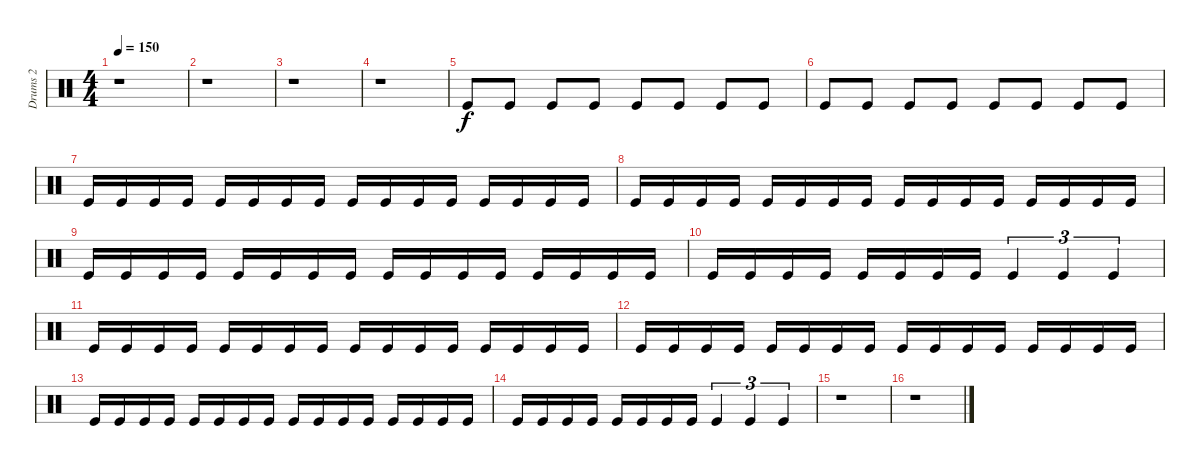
\track ("Drums 2" "Drums 2") {instrument percussion}
\staff {score}
\articulation defaults
\ts (4 4)
\tempo 150
\clef neutral
\ks c
r.1{dy f} |
r.1 |
r.1 |
r.1 |
"Kick (hit)".8 "Kick (hit)".8 "Kick (hit)".8 "Kick (hit)".8 "Kick (hit)".8 "Kick (hit)".8 "Kick (hit)".8 "Kick (hit)".8 |
"Kick (hit)".8 "Kick (hit)".8 "Kick (hit)".8 "Kick (hit)".8 "Kick (hit)".8 "Kick (hit)".8 "Kick (hit)".8 "Kick (hit)".8 |
"Kick (hit)".16 "Kick (hit)".16 "Kick (hit)".16 "Kick (hit)".16 "Kick (hit)".16 "Kick (hit)".16 "Kick (hit)".16 "Kick (hit)".16 "Kick (hit)".16 "Kick (hit)".16 "Kick (hit)".16 "Kick (hit)".16 "Kick (hit)".16 "Kick (hit)".16 "Kick (hit)".16 "Kick (hit)".16 |
"Kick (hit)".16 "Kick (hit)".16 "Kick (hit)".16 "Kick (hit)".16 "Kick (hit)".16 "Kick (hit)".16 "Kick (hit)".16 "Kick (hit)".16 "Kick (hit)".16 "Kick (hit)".16 "Kick (hit)".16 "Kick (hit)".16 "Kick (hit)".16 "Kick (hit)".16 "Kick (hit)".16 "Kick (hit)".16 |
"Kick (hit)".16 "Kick (hit)".16 "Kick (hit)".16 "Kick (hit)".16 "Kick (hit)".16 "Kick (hit)".16 "Kick (hit)".16 "Kick (hit)".16 "Kick (hit)".16 "Kick (hit)".16 "Kick (hit)".16 "Kick (hit)".16 "Kick (hit)".16 "Kick (hit)".16 "Kick (hit)".16 "Kick (hit)".16 |
"Kick (hit)".16 "Kick (hit)".16 "Kick (hit)".16 "Kick (hit)".16 "Kick (hit)".16 "Kick (hit)".16 "Kick (hit)".16 "Kick (hit)".16 "Kick (hit)".4{tu (3 2)} "Kick (hit)".4{tu (3 2)} "Kick (hit)".4{tu (3 2)} |
"Kick (hit)".16 "Kick (hit)".16 "Kick (hit)".16 "Kick (hit)".16 "Kick (hit)".16 "Kick (hit)".16 "Kick (hit)".16 "Kick (hit)".16 "Kick (hit)".16 "Kick (hit)".16 "Kick (hit)".16 "Kick (hit)".16 "Kick (hit)".16 "Kick (hit)".16 "Kick (hit)".16 "Kick (hit)".16 |
"Kick (hit)".16 "Kick (hit)".16 "Kick (hit)".16 "Kick (hit)".16 "Kick (hit)".16 "Kick (hit)".16 "Kick (hit)".16 "Kick (hit)".16 "Kick (hit)".16 "Kick (hit)".16 "Kick (hit)".16 "Kick (hit)".16 "Kick (hit)".16 "Kick (hit)".16 "Kick (hit)".16 "Kick (hit)".16 |
"Kick (hit)".16 "Kick (hit)".16 "Kick (hit)".16 "Kick (hit)".16 "Kick (hit)".16 "Kick (hit)".16 "Kick (hit)".16 "Kick (hit)".16 "Kick (hit)".16 "Kick (hit)".16 "Kick (hit)".16 "Kick (hit)".16 "Kick (hit)".16 "Kick (hit)".16 "Kick (hit)".16 "Kick (hit)".16 |
"Kick (hit)".16 "Kick (hit)".16 "Kick (hit)".16 "Kick (hit)".16 "Kick (hit)".16 "Kick (hit)".16 "Kick (hit)".16 "Kick (hit)".16 "Kick (hit)".4{tu (3 2)} "Kick (hit)".4{tu (3 2)} "Kick (hit)".4{tu (3 2)} |
r.1 |
r.1
